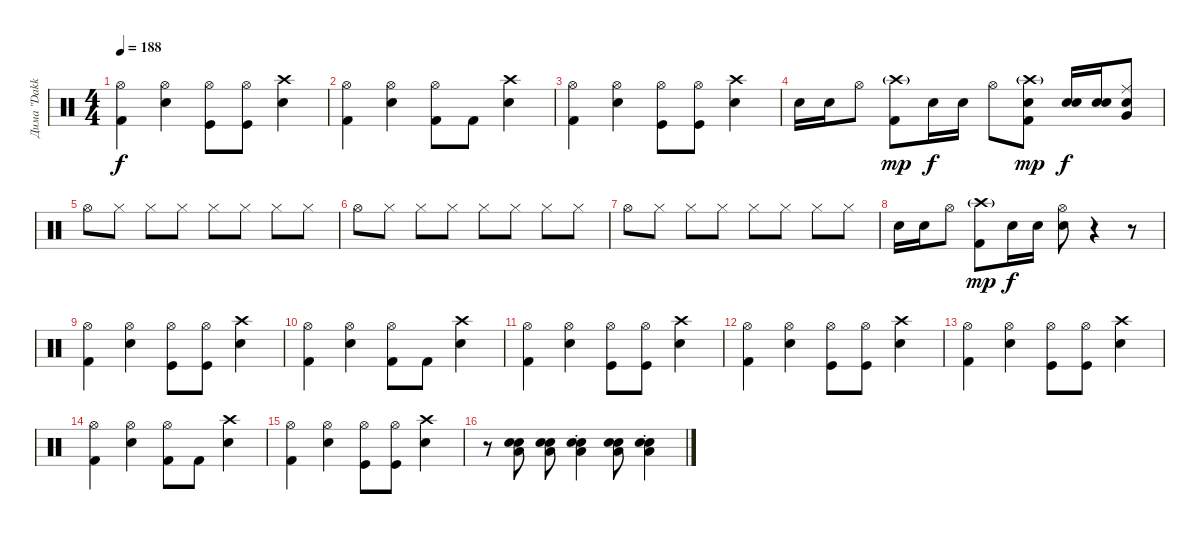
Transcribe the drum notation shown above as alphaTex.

\track ("Дима \"Dakkar\" Кеменов" "Дима \"Dakk") {instrument percussion}
\staff
\articulation defaults
\ts (4 4)
\tempo 188
\clef neutral
\ks c
("Hi-Hat (open)" "Kick (hit) 2").4{dy f} ("Hi-Hat (open)" "Electric Snare (hit)").4 ("Hi-Hat (open)" "Kick (hit)").8 ("Hi-Hat (open)" "Kick (hit)").8 ("Crash high (hit)" "Electric Snare (hit)").4 |
("Hi-Hat (open)" "Kick (hit) 2").4 ("Hi-Hat (open)" "Electric Snare (hit)").4 ("Hi-Hat (open)" "Kick (hit) 2").8 "Kick (hit) 2".8 ("Crash high (hit)" "Electric Snare (hit)").4 |
("Hi-Hat (open)" "Kick (hit) 2").4 ("Hi-Hat (open)" "Electric Snare (hit)").4 ("Hi-Hat (open)" "Kick (hit)").8 ("Hi-Hat (open)" "Kick (hit)").8 ("Crash high (hit)" "Electric Snare (hit)").4 |
"Electric Snare (hit)".16 "Electric Snare (hit)".16 "Hi-Hat (open)".8 ("Crash high (hit)"{g} "Kick (hit) 2").8{dy mp} "Electric Snare (hit)".16{dy f} "Electric Snare (hit)".16 "Hi-Hat (open)".8 ("Electric Snare (hit)" "Crash high (hit)"{g} "Kick (hit) 2").8{dy mp} ("Electric Snare (hit)" "Electric Snare (hit)").16{dy f} ("Electric Snare (hit)" "Electric Snare (hit)").16 ("Electric Snare (hit)" "Ride (middle)" "Very Low Tom (hit)").8 |
"Hi-Hat (open)".8 "Hi-Hat (closed)".8 "Hi-Hat (closed)".8 "Hi-Hat (closed)".8 "Hi-Hat (closed)".8 "Hi-Hat (closed)".8 "Hi-Hat (closed)".8 "Hi-Hat (closed)".8 |
"Hi-Hat (open)".8 "Hi-Hat (closed)".8 "Hi-Hat (closed)".8 "Hi-Hat (closed)".8 "Hi-Hat (closed)".8 "Hi-Hat (closed)".8 "Hi-Hat (closed)".8 "Hi-Hat (closed)".8 |
"Hi-Hat (open)".8 "Hi-Hat (closed)".8 "Hi-Hat (closed)".8 "Hi-Hat (closed)".8 "Hi-Hat (closed)".8 "Hi-Hat (closed)".8 "Hi-Hat (closed)".8 "Hi-Hat (closed)".8 |
"Electric Snare (hit)".16 "Electric Snare (hit)".16 "Hi-Hat (open)".8 ("Crash high (hit)"{g} "Kick (hit) 2").8{dy mp} "Electric Snare (hit)".16{dy f} "Electric Snare (hit)".16 ("Hi-Hat (open)" "Electric Snare (hit)").8 r.4 r.8 |
("Hi-Hat (open)" "Kick (hit) 2").4 ("Hi-Hat (open)" "Electric Snare (hit)").4 ("Hi-Hat (open)" "Kick (hit)").8 ("Hi-Hat (open)" "Kick (hit)").8 ("Crash high (hit)" "Electric Snare (hit)").4 |
("Hi-Hat (open)" "Kick (hit) 2").4 ("Hi-Hat (open)" "Electric Snare (hit)").4 ("Hi-Hat (open)" "Kick (hit) 2").8 "Kick (hit) 2".8 ("Crash high (hit)" "Electric Snare (hit)").4 |
("Hi-Hat (open)" "Kick (hit) 2").4 ("Hi-Hat (open)" "Electric Snare (hit)").4 ("Hi-Hat (open)" "Kick (hit)").8 ("Hi-Hat (open)" "Kick (hit)").8 ("Crash high (hit)" "Electric Snare (hit)").4 |
("Hi-Hat (open)" "Kick (hit) 2").4 ("Hi-Hat (open)" "Electric Snare (hit)").4 ("Hi-Hat (open)" "Kick (hit)").8 ("Hi-Hat (open)" "Kick (hit)").8 ("Crash high (hit)" "Electric Snare (hit)").4 |
("Hi-Hat (open)" "Kick (hit) 2").4 ("Hi-Hat (open)" "Electric Snare (hit)").4 ("Hi-Hat (open)" "Kick (hit)").8 ("Hi-Hat (open)" "Kick (hit)").8 ("Crash high (hit)" "Electric Snare (hit)").4 |
("Hi-Hat (open)" "Kick (hit) 2").4 ("Hi-Hat (open)" "Electric Snare (hit)").4 ("Hi-Hat (open)" "Kick (hit) 2").8 "Kick (hit) 2".8 ("Crash high (hit)" "Electric Snare (hit)").4 |
("Hi-Hat (open)" "Kick (hit) 2").4 ("Hi-Hat (open)" "Electric Snare (hit)").4 ("Hi-Hat (open)" "Kick (hit)").8 ("Hi-Hat (open)" "Kick (hit)").8 ("Crash high (hit)" "Electric Snare (hit)").4 |
r.8 ("Low Floor Tom (hit)" "Electric Snare (hit)" "Electric Snare (hit)").8 ("Low Floor Tom (hit)" "Electric Snare (hit)" "Electric Snare (hit)").8 ("Low Floor Tom (hit)" "Electric Snare (hit)"{st} "Electric Snare (hit)"{st}).4 ("Low Floor Tom (hit)" "Electric Snare (hit)" "Electric Snare (hit)").8 ("Low Floor Tom (hit)" "Electric Snare (hit)"{st} "Electric Snare (hit)"{st}).4
